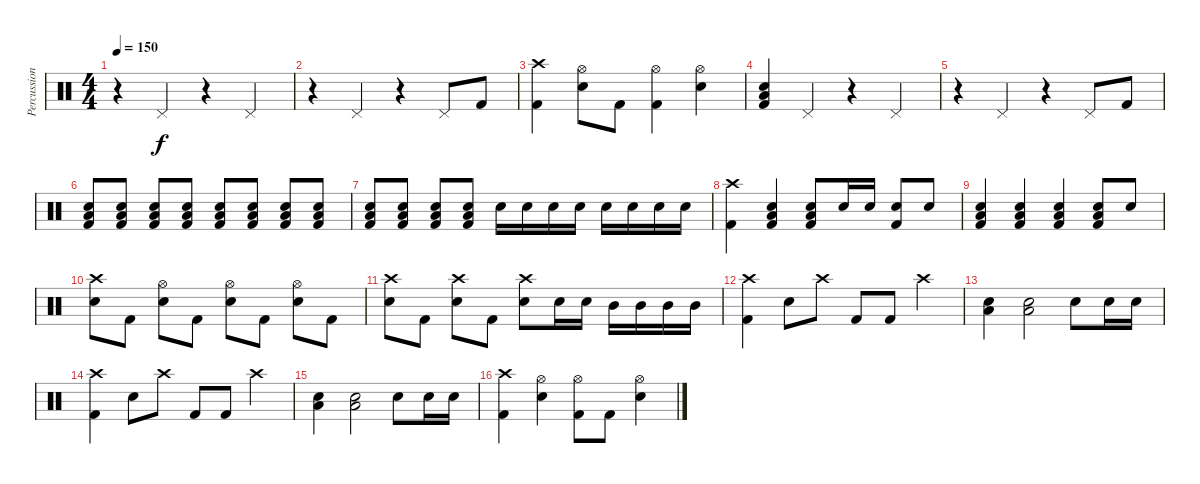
\track ("Percussion" "Percussion") {instrument percussion}
\staff {score}
\articulation defaults
\ts (4 4)
\tempo 150
\clef neutral
\ks c
r.4{dy f} "Pedal Hi-Hat (hit)".4 r.4 "Pedal Hi-Hat (hit)".4 |
r.4 "Pedal Hi-Hat (hit)".4 r.4 "Pedal Hi-Hat (hit)".8 "Kick (hit) 2".8 |
("Crash high (hit)" "Kick (hit) 2").4 ("Hi-Hat (open)" "Snare (hit) 2").8 "Kick (hit) 2".8 ("Hi-Hat (open)" "Kick (hit) 2").4 ("Hi-Hat (open)" "Snare (hit) 2").4 |
("Low Floor Tom (hit)" "Snare (hit) 2" "Kick (hit) 2").4 "Pedal Hi-Hat (hit)".4 r.4 "Pedal Hi-Hat (hit)".4 |
r.4 "Pedal Hi-Hat (hit)".4 r.4 "Pedal Hi-Hat (hit)".8 "Kick (hit) 2".8 |
("Low Floor Tom (hit)" "Snare (hit) 2" "Kick (hit) 2").8 ("Low Floor Tom (hit)" "Snare (hit) 2" "Kick (hit) 2").8 ("Low Floor Tom (hit)" "Snare (hit) 2" "Kick (hit) 2").8 ("Low Floor Tom (hit)" "Snare (hit) 2" "Kick (hit) 2").8 ("Low Floor Tom (hit)" "Snare (hit) 2" "Kick (hit) 2").8 ("Low Floor Tom (hit)" "Snare (hit) 2" "Kick (hit) 2").8 ("Low Floor Tom (hit)" "Snare (hit) 2" "Kick (hit) 2").8 ("Low Floor Tom (hit)" "Snare (hit) 2" "Kick (hit) 2").8 |
("Low Floor Tom (hit)" "Snare (hit) 2" "Kick (hit) 2").8 ("Low Floor Tom (hit)" "Snare (hit) 2" "Kick (hit) 2").8 ("Low Floor Tom (hit)" "Snare (hit) 2" "Kick (hit) 2").8 ("Low Floor Tom (hit)" "Snare (hit) 2" "Kick (hit) 2").8 "Snare (hit) 2".16 "Snare (hit) 2".16 "Snare (hit) 2".16 "Snare (hit) 2".16 "Snare (hit) 2".16 "Snare (hit) 2".16 "Snare (hit) 2".16 "Snare (hit) 2".16 |
("Crash high (hit)" "Kick (hit) 2").4 ("Low Floor Tom (hit)" "Snare (hit) 2" "Kick (hit) 2").4 ("Low Floor Tom (hit)" "Snare (hit) 2" "Kick (hit) 2").8 "Snare (hit) 2".16 "Snare (hit) 2".16 ("Snare (hit) 2" "Kick (hit) 2").8 "Snare (hit) 2".8 |
("Low Floor Tom (hit)" "Snare (hit) 2" "Kick (hit) 2").4 ("Low Floor Tom (hit)" "Snare (hit) 2" "Kick (hit) 2").4 ("Low Floor Tom (hit)" "Snare (hit) 2" "Kick (hit) 2").4 ("Low Floor Tom (hit)" "Snare (hit) 2" "Kick (hit) 2").8 "Snare (hit) 2".8 |
("Crash high (hit)" "Snare (hit) 2").8 "Kick (hit) 2".8 ("Hi-Hat (open)" "Snare (hit) 2").8 "Kick (hit) 2".8 ("Hi-Hat (open)" "Snare (hit) 2").8 "Kick (hit) 2".8 ("Hi-Hat (open)" "Snare (hit) 2").8 "Kick (hit) 2".8 |
("Crash high (hit)" "Snare (hit) 2").8 "Kick (hit) 2".8 ("Crash high (hit)" "Snare (hit) 2").8 "Kick (hit) 2".8 ("Crash high (hit)" "Snare (hit) 2").8 "Snare (hit) 2".16 "Snare (hit) 2".16 "Mid Tom (hit)".16 "Mid Tom (hit)".16 "Mid Tom (hit)".16 "Mid Tom (hit)".16 |
("Crash high (hit)" "Kick (hit) 2").4 "Snare (hit) 2".8 "Crash high (hit)".8 "Kick (hit) 2".8 "Kick (hit) 2".8 "Crash high (hit)".4 |
("Low Floor Tom (hit)" "Snare (hit) 2").4 ("Low Floor Tom (hit)" "Snare (hit) 2").2 "Snare (hit) 2".8 "Snare (hit) 2".16 "Snare (hit) 2".16 |
("Crash high (hit)" "Kick (hit) 2").4 "Snare (hit) 2".8 "Crash high (hit)".8 "Kick (hit) 2".8 "Kick (hit) 2".8 "Crash high (hit)".4 |
("Low Floor Tom (hit)" "Snare (hit) 2").4 ("Low Floor Tom (hit)" "Snare (hit) 2").2 "Snare (hit) 2".8 "Snare (hit) 2".16 "Snare (hit) 2".16 |
("Crash high (hit)" "Kick (hit) 2").4 ("Hi-Hat (open)" "Snare (hit) 2").4 ("Hi-Hat (open)" "Kick (hit) 2").8 "Kick (hit) 2".8 ("Hi-Hat (open)" "Snare (hit) 2").4
